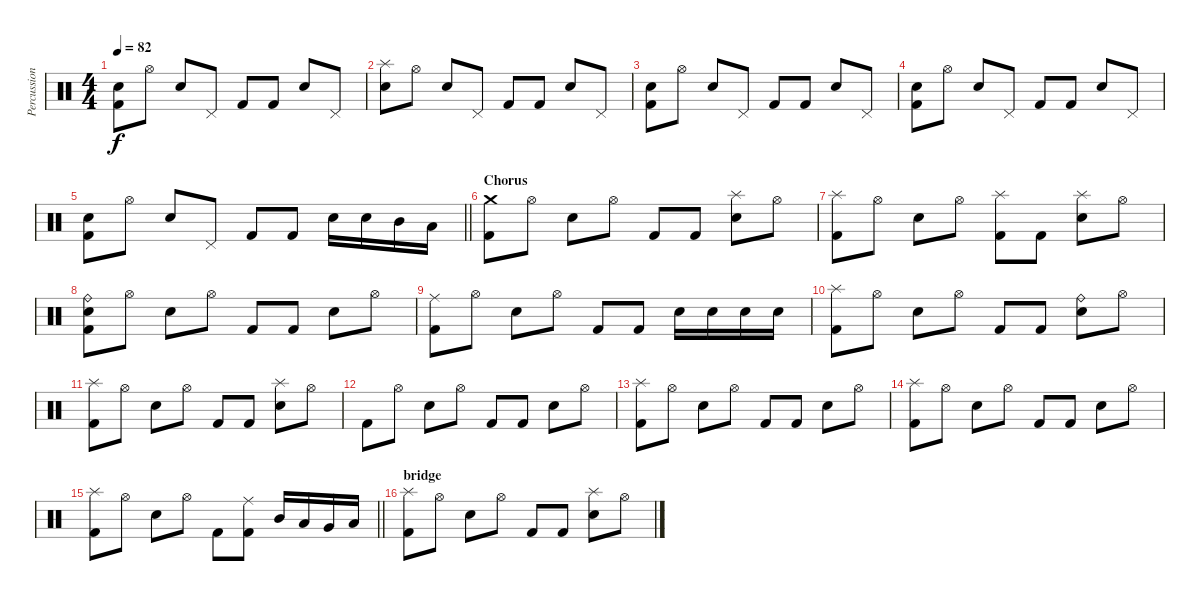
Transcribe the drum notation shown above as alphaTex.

\track ("Percussion" "Percussion") {instrument percussion}
\staff {score}
\articulation defaults
\ts (4 4)
\tempo 82
\clef neutral
\ks c
("Snare (hit)" "Kick (hit) 2").8{dy f} "Hi-Hat (open)".8 "Snare (hit) 2".8 "Pedal Hi-Hat (hit)".8 "Kick (hit) 2".8 "Kick (hit) 2".8 "Snare (hit) 2".8 "Pedal Hi-Hat (hit)".8 |
("Snare (hit)" "Splash (hit)").8 "Hi-Hat (open)".8 "Snare (hit) 2".8 "Pedal Hi-Hat (hit)".8 "Kick (hit) 2".8 "Kick (hit) 2".8 "Snare (hit) 2".8 "Pedal Hi-Hat (hit)".8 |
("Snare (hit)" "Kick (hit) 2").8 "Hi-Hat (open)".8 "Snare (hit) 2".8 "Pedal Hi-Hat (hit)".8 "Kick (hit) 2".8 "Kick (hit) 2".8 "Snare (hit) 2".8 "Pedal Hi-Hat (hit)".8 |
("Snare (hit)" "Kick (hit) 2").8 "Hi-Hat (open)".8 "Snare (hit) 2".8 "Pedal Hi-Hat (hit)".8 "Kick (hit) 2".8 "Kick (hit) 2".8 "Snare (hit) 2".8 "Pedal Hi-Hat (hit)".8 |
\barLineRight lightlight
("Snare (hit)" "Kick (hit) 2").8 "Hi-Hat (open)".8 "Snare (hit) 2".8 "Pedal Hi-Hat (hit)".8 "Kick (hit) 2".8 "Kick (hit) 2".8 "Snare (hit) 2".16 "Snare (hit) 2".16 "Mid Tom (hit)".16 "Low Tom (hit)".16 |
\section ("" "Chorus")
("Kick (hit) 2" "Crash medium (hit)").8 "Hi-Hat (open)".8 "Snare (hit) 2".8 "Hi-Hat (open)".8 "Kick (hit) 2".8 "Kick (hit) 2".8 ("Snare (hit) 2" "Splash (hit)").8 "Hi-Hat (open)".8 |
("Kick (hit) 2" "Splash (hit)").8 "Hi-Hat (open)".8 "Snare (hit) 2".8 "Hi-Hat (open)".8 ("Splash (hit)" "Kick (hit) 2").8 "Kick (hit) 2".8 ("Splash (hit)" "Snare (hit) 2").8 "Hi-Hat (open)".8 |
("Snare (hit)" "Kick (hit) 2" "Ride (bell)").8 "Hi-Hat (open)".8 "Snare (hit) 2".8 "Hi-Hat (open)".8 "Kick (hit) 2".8 "Kick (hit) 2".8 "Snare (hit) 2".8 "Hi-Hat (open)".8 |
("Kick (hit) 2" "Ride (middle)").8 "Hi-Hat (open)".8 "Snare (hit) 2".8 "Hi-Hat (open)".8 "Kick (hit) 2".8 "Kick (hit) 2".8 "Snare (hit) 2".16 "Snare (hit) 2".16 "Snare (hit) 2".16 "Snare (hit) 2".16 |
("Kick (hit) 2" "Splash (hit)").8 "Hi-Hat (open)".8 "Snare (hit) 2".8 "Hi-Hat (open)".8 "Kick (hit) 2".8 "Kick (hit) 2".8 ("Ride (bell)" "Snare (hit) 2").8 "Hi-Hat (open)".8 |
("Kick (hit) 2" "Splash (hit)").8 "Hi-Hat (open)".8 "Snare (hit) 2".8 "Hi-Hat (open)".8 "Kick (hit) 2".8 "Kick (hit) 2".8 ("Splash (hit)" "Snare (hit) 2").8 "Hi-Hat (open)".8 |
"Kick (hit) 2".8 "Hi-Hat (open)".8 "Snare (hit) 2".8 "Hi-Hat (open)".8 "Kick (hit) 2".8 "Kick (hit) 2".8 "Snare (hit) 2".8 "Hi-Hat (open)".8 |
("Splash (hit)" "Kick (hit) 2").8 "Hi-Hat (open)".8 "Snare (hit) 2".8 "Hi-Hat (open)".8 "Kick (hit) 2".8 "Kick (hit) 2".8 "Snare (hit) 2".8 "Hi-Hat (open)".8 |
("Splash (hit)" "Kick (hit) 2").8 "Hi-Hat (open)".8 "Snare (hit) 2".8 "Hi-Hat (open)".8 "Kick (hit) 2".8 "Kick (hit) 2".8 "Snare (hit) 2".8 "Hi-Hat (open)".8 |
\barLineRight lightlight
("Splash (hit)" "Kick (hit) 2").8 "Hi-Hat (open)".8 "Snare (hit) 2".8 "Hi-Hat (open)".8 "Kick (hit) 2".8 ("Ride (middle)" "Kick (hit) 2").8 "Mid Tom (hit)".16 "Low Tom (hit)".16 "Very Low Tom (hit)".16 "Low Floor Tom (hit)".16 |
\section ("" "bridge")
("Kick (hit) 2" "Splash (hit)").8 "Hi-Hat (open)".8 "Snare (hit) 2".8 "Hi-Hat (open)".8 "Kick (hit) 2".8 "Kick (hit) 2".8 ("Splash (hit)" "Snare (hit) 2").8 "Hi-Hat (open)".8
